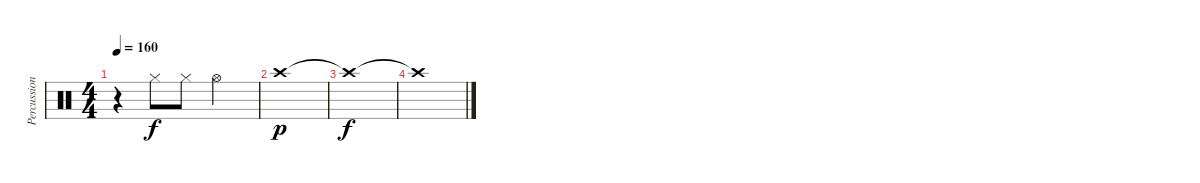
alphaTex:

\track ("Percussion" "Percussion") {instrument percussion}
\staff {score}
\articulation defaults
\ts (4 4)
\tempo 160
\clef neutral
\ks c
r.4{dy f} "Hi-Hat (closed)".8 "Hi-Hat (closed)".8 "Hi-Hat (open)".2 |
"Crash high (hit)".1{dy p} |
"Crash high (hit)"{t}.1{dy f} |
"Crash high (hit)"{t}.1
